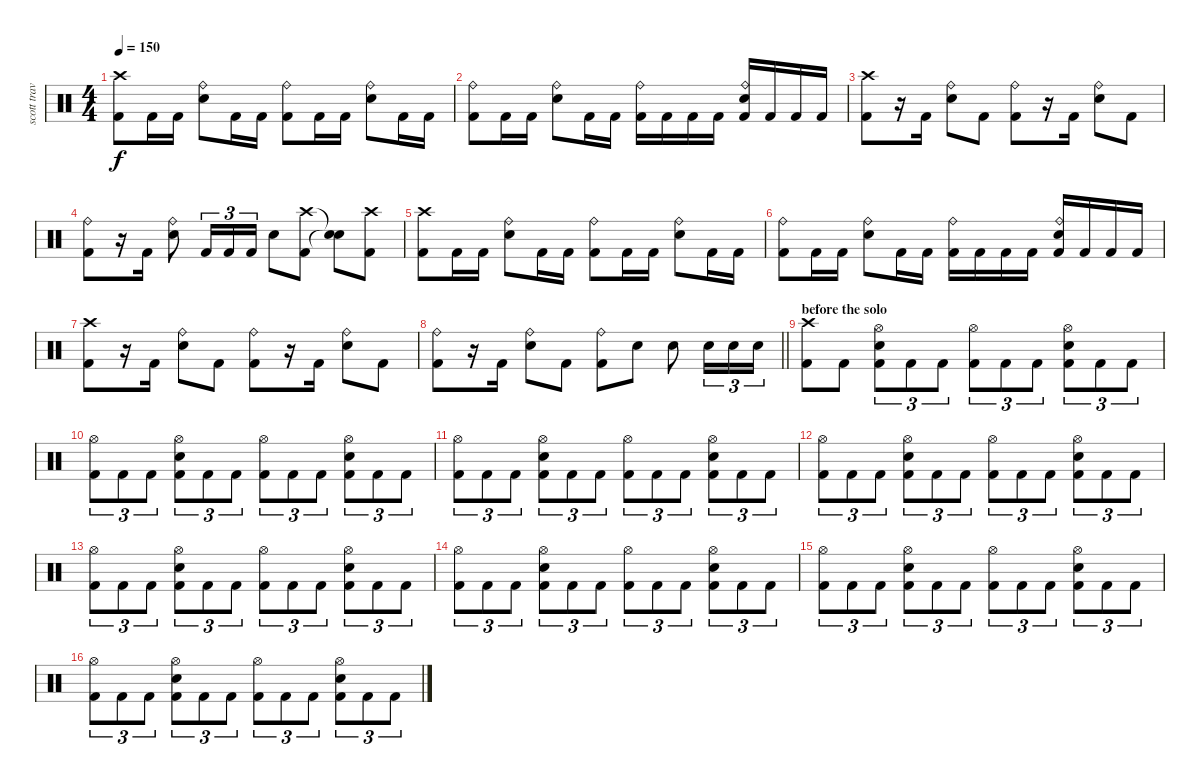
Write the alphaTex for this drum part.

\track ("scott travis" "scott trav") {instrument percussion}
\staff {score}
\articulation defaults
\ts (4 4)
\tempo 150
\clef neutral
\ks c
("Crash high (hit)" "Kick (hit) 2").8{dy f} "Kick (hit) 2".16 "Kick (hit) 2".16 ("Ride (bell)" "Snare (hit) 2").8 "Kick (hit) 2".16 "Kick (hit) 2".16 ("Ride (bell)" "Kick (hit) 2").8 "Kick (hit) 2".16 "Kick (hit) 2".16 ("Ride (bell)" "Snare (hit) 2").8 "Kick (hit) 2".16 "Kick (hit) 2".16 |
("Ride (bell)" "Kick (hit) 2").8 "Kick (hit) 2".16 "Kick (hit) 2".16 ("Ride (bell)" "Snare (hit) 2").8 "Kick (hit) 2".16 "Kick (hit) 2".16 ("Ride (bell)" "Kick (hit) 2").16 "Kick (hit) 2".16 "Kick (hit) 2".16 "Kick (hit) 2".16 ("Ride (bell)" "Snare (hit) 2" "Kick (hit) 2").16 "Kick (hit) 2".16 "Kick (hit) 2".16 "Kick (hit) 2".16 |
("Crash high (hit)" "Kick (hit) 2").8 r.16 "Kick (hit) 2".16 ("Ride (bell)" "Snare (hit) 2").8 "Kick (hit) 2".8 ("Ride (bell)" "Kick (hit) 2").8 r.16 "Kick (hit) 2".16 ("Ride (bell)" "Snare (hit) 2").8 "Kick (hit) 2".8 |
("Ride (bell)" "Kick (hit) 2").8 r.16 "Kick (hit) 2".16 ("Ride (bell)" "Snare (hit) 2").8 "Kick (hit) 2".16{tu (3 2)} "Kick (hit) 2".16{tu (3 2)} "Kick (hit) 2".16{tu (3 2)} "Snare (hit) 2".8 ("Crash high (hit)" "Kick (hit) 2").8 ("Snare (hit)"{t} "Snare (hit)"{t}).8 ("Crash high (hit)" "Kick (hit) 2").8 |
("Crash high (hit)" "Kick (hit) 2").8 "Kick (hit) 2".16 "Kick (hit) 2".16 ("Ride (bell)" "Snare (hit) 2").8 "Kick (hit) 2".16 "Kick (hit) 2".16 ("Ride (bell)" "Kick (hit) 2").8 "Kick (hit) 2".16 "Kick (hit) 2".16 ("Ride (bell)" "Snare (hit) 2").8 "Kick (hit) 2".16 "Kick (hit) 2".16 |
("Ride (bell)" "Kick (hit) 2").8 "Kick (hit) 2".16 "Kick (hit) 2".16 ("Ride (bell)" "Snare (hit) 2").8 "Kick (hit) 2".16 "Kick (hit) 2".16 ("Ride (bell)" "Kick (hit) 2").16 "Kick (hit) 2".16 "Kick (hit) 2".16 "Kick (hit) 2".16 ("Ride (bell)" "Snare (hit) 2" "Kick (hit) 2").16 "Kick (hit) 2".16 "Kick (hit) 2".16 "Kick (hit) 2".16 |
("Crash high (hit)" "Kick (hit) 2").8 r.16 "Kick (hit) 2".16 ("Ride (bell)" "Snare (hit) 2").8 "Kick (hit) 2".8 ("Ride (bell)" "Kick (hit) 2").8 r.16 "Kick (hit) 2".16 ("Ride (bell)" "Snare (hit) 2").8 "Kick (hit) 2".8 |
\barLineRight lightlight
("Ride (bell)" "Kick (hit) 2").8 r.16 "Kick (hit) 2".16 ("Ride (bell)" "Snare (hit) 2").8 "Kick (hit) 2".8 ("Ride (bell)" "Kick (hit) 2").8 "Snare (hit) 2".8 "Snare (hit) 2".8 "Snare (hit) 2".16{tu (3 2)} "Snare (hit) 2".16{tu (3 2)} "Snare (hit) 2".16{tu (3 2)} |
\section ("" "before the solo")
("Crash high (hit)" "Kick (hit) 2").8 "Kick (hit) 2".8 ("Hi-Hat (open)" "Snare (hit) 2" "Kick (hit) 2").8{tu (3 2)} "Kick (hit) 2".8{tu (3 2)} "Kick (hit) 2".8{tu (3 2)} ("Hi-Hat (open)" "Kick (hit) 2").8{tu (3 2)} "Kick (hit) 2".8{tu (3 2)} "Kick (hit) 2".8{tu (3 2)} ("Hi-Hat (open)" "Snare (hit) 2" "Kick (hit) 2").8{tu (3 2)} "Kick (hit) 2".8{tu (3 2)} "Kick (hit) 2".8{tu (3 2)} |
("Hi-Hat (open)" "Kick (hit) 2").8{tu (3 2)} "Kick (hit) 2".8{tu (3 2)} "Kick (hit) 2".8{tu (3 2)} ("Hi-Hat (open)" "Snare (hit) 2" "Kick (hit) 2").8{tu (3 2)} "Kick (hit) 2".8{tu (3 2)} "Kick (hit) 2".8{tu (3 2)} ("Hi-Hat (open)" "Kick (hit) 2").8{tu (3 2)} "Kick (hit) 2".8{tu (3 2)} "Kick (hit) 2".8{tu (3 2)} ("Hi-Hat (open)" "Snare (hit) 2" "Kick (hit) 2").8{tu (3 2)} "Kick (hit) 2".8{tu (3 2)} "Kick (hit) 2".8{tu (3 2)} |
("Hi-Hat (open)" "Kick (hit) 2").8{tu (3 2)} "Kick (hit) 2".8{tu (3 2)} "Kick (hit) 2".8{tu (3 2)} ("Hi-Hat (open)" "Snare (hit) 2" "Kick (hit) 2").8{tu (3 2)} "Kick (hit) 2".8{tu (3 2)} "Kick (hit) 2".8{tu (3 2)} ("Hi-Hat (open)" "Kick (hit) 2").8{tu (3 2)} "Kick (hit) 2".8{tu (3 2)} "Kick (hit) 2".8{tu (3 2)} ("Hi-Hat (open)" "Snare (hit) 2" "Kick (hit) 2").8{tu (3 2)} "Kick (hit) 2".8{tu (3 2)} "Kick (hit) 2".8{tu (3 2)} |
("Hi-Hat (open)" "Kick (hit) 2").8{tu (3 2)} "Kick (hit) 2".8{tu (3 2)} "Kick (hit) 2".8{tu (3 2)} ("Hi-Hat (open)" "Snare (hit) 2" "Kick (hit) 2").8{tu (3 2)} "Kick (hit) 2".8{tu (3 2)} "Kick (hit) 2".8{tu (3 2)} ("Hi-Hat (open)" "Kick (hit) 2").8{tu (3 2)} "Kick (hit) 2".8{tu (3 2)} "Kick (hit) 2".8{tu (3 2)} ("Hi-Hat (open)" "Snare (hit) 2" "Kick (hit) 2").8{tu (3 2)} "Kick (hit) 2".8{tu (3 2)} "Kick (hit) 2".8{tu (3 2)} |
("Hi-Hat (open)" "Kick (hit) 2").8{tu (3 2)} "Kick (hit) 2".8{tu (3 2)} "Kick (hit) 2".8{tu (3 2)} ("Hi-Hat (open)" "Snare (hit) 2" "Kick (hit) 2").8{tu (3 2)} "Kick (hit) 2".8{tu (3 2)} "Kick (hit) 2".8{tu (3 2)} ("Hi-Hat (open)" "Kick (hit) 2").8{tu (3 2)} "Kick (hit) 2".8{tu (3 2)} "Kick (hit) 2".8{tu (3 2)} ("Hi-Hat (open)" "Snare (hit) 2" "Kick (hit) 2").8{tu (3 2)} "Kick (hit) 2".8{tu (3 2)} "Kick (hit) 2".8{tu (3 2)} |
("Hi-Hat (open)" "Kick (hit) 2").8{tu (3 2)} "Kick (hit) 2".8{tu (3 2)} "Kick (hit) 2".8{tu (3 2)} ("Hi-Hat (open)" "Snare (hit) 2" "Kick (hit) 2").8{tu (3 2)} "Kick (hit) 2".8{tu (3 2)} "Kick (hit) 2".8{tu (3 2)} ("Hi-Hat (open)" "Kick (hit) 2").8{tu (3 2)} "Kick (hit) 2".8{tu (3 2)} "Kick (hit) 2".8{tu (3 2)} ("Hi-Hat (open)" "Snare (hit) 2" "Kick (hit) 2").8{tu (3 2)} "Kick (hit) 2".8{tu (3 2)} "Kick (hit) 2".8{tu (3 2)} |
("Hi-Hat (open)" "Kick (hit) 2").8{tu (3 2)} "Kick (hit) 2".8{tu (3 2)} "Kick (hit) 2".8{tu (3 2)} ("Hi-Hat (open)" "Snare (hit) 2" "Kick (hit) 2").8{tu (3 2)} "Kick (hit) 2".8{tu (3 2)} "Kick (hit) 2".8{tu (3 2)} ("Hi-Hat (open)" "Kick (hit) 2").8{tu (3 2)} "Kick (hit) 2".8{tu (3 2)} "Kick (hit) 2".8{tu (3 2)} ("Hi-Hat (open)" "Snare (hit) 2" "Kick (hit) 2").8{tu (3 2)} "Kick (hit) 2".8{tu (3 2)} "Kick (hit) 2".8{tu (3 2)} |
("Hi-Hat (open)" "Kick (hit) 2").8{tu (3 2)} "Kick (hit) 2".8{tu (3 2)} "Kick (hit) 2".8{tu (3 2)} ("Hi-Hat (open)" "Snare (hit) 2" "Kick (hit) 2").8{tu (3 2)} "Kick (hit) 2".8{tu (3 2)} "Kick (hit) 2".8{tu (3 2)} ("Hi-Hat (open)" "Kick (hit) 2").8{tu (3 2)} "Kick (hit) 2".8{tu (3 2)} "Kick (hit) 2".8{tu (3 2)} ("Hi-Hat (open)" "Snare (hit) 2" "Kick (hit) 2").8{tu (3 2)} "Kick (hit) 2".8{tu (3 2)} "Kick (hit) 2".8{tu (3 2)}
